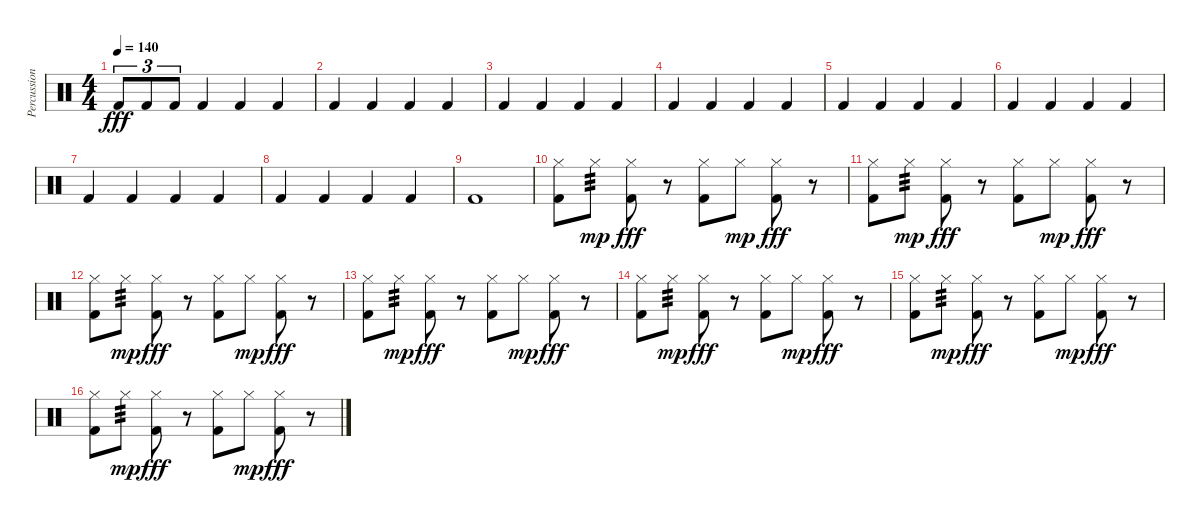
\track ("Percussion" "Percussion") {instrument percussion}
\staff {score}
\articulation defaults
\ts (4 4)
\tempo 140
\clef neutral
\ks c "Kick (hit) 2".8{tu (3 2) dy fff} "Kick (hit) 2".8{tu (3 2)} "Kick (hit) 2".8{tu (3 2)} "Kick (hit) 2".4 "Kick (hit) 2".4 "Kick (hit) 2".4
|
"Kick (hit) 2".4 "Kick (hit) 2".4 "Kick (hit) 2".4 "Kick (hit) 2".4 |
"Kick (hit) 2".4 "Kick (hit) 2".4 "Kick (hit) 2".4 "Kick (hit) 2".4 |
"Kick (hit) 2".4 "Kick (hit) 2".4 "Kick (hit) 2".4 "Kick (hit) 2".4 |
"Kick (hit) 2".4 "Kick (hit) 2".4 "Kick (hit) 2".4 "Kick (hit) 2".4 |
"Kick (hit) 2".4 "Kick (hit) 2".4 "Kick (hit) 2".4 "Kick (hit) 2".4 |
"Kick (hit) 2".4 "Kick (hit) 2".4 "Kick (hit) 2".4 "Kick (hit) 2".4 |
"Kick (hit) 2".4 "Kick (hit) 2".4 "Kick (hit) 2".4 "Kick (hit) 2".4 |
"Kick (hit) 2".1 |
("Hi-Hat (closed)" "Kick (hit) 2").8 "Hi-Hat (closed)".8{tp 3 dy mp} ("Hi-Hat (closed)" "Kick (hit) 2").8{dy fff} r.8 ("Hi-Hat (closed)" "Kick (hit) 2").8 "Hi-Hat (closed)".8{dy mp} ("Hi-Hat (closed)" "Kick (hit) 2").8{dy fff} r.8 |
("Hi-Hat (closed)" "Kick (hit) 2").8 "Hi-Hat (closed)".8{tp 3 dy mp} ("Hi-Hat (closed)" "Kick (hit) 2").8{dy fff} r.8 ("Hi-Hat (closed)" "Kick (hit) 2").8 "Hi-Hat (closed)".8{dy mp} ("Hi-Hat (closed)" "Kick (hit) 2").8{dy fff} r.8 |
("Hi-Hat (closed)" "Kick (hit) 2").8 "Hi-Hat (closed)".8{tp 3 dy mp} ("Hi-Hat (closed)" "Kick (hit) 2").8{dy fff} r.8 ("Hi-Hat (closed)" "Kick (hit) 2").8 "Hi-Hat (closed)".8{dy mp} ("Hi-Hat (closed)" "Kick (hit) 2").8{dy fff} r.8 |
("Hi-Hat (closed)" "Kick (hit) 2").8 "Hi-Hat (closed)".8{tp 3 dy mp} ("Hi-Hat (closed)" "Kick (hit) 2").8{dy fff} r.8 ("Hi-Hat (closed)" "Kick (hit) 2").8 "Hi-Hat (closed)".8{dy mp} ("Hi-Hat (closed)" "Kick (hit) 2").8{dy fff} r.8 |
("Hi-Hat (closed)" "Kick (hit) 2").8 "Hi-Hat (closed)".8{tp 3 dy mp} ("Hi-Hat (closed)" "Kick (hit) 2").8{dy fff} r.8 ("Hi-Hat (closed)" "Kick (hit) 2").8 "Hi-Hat (closed)".8{dy mp} ("Hi-Hat (closed)" "Kick (hit) 2").8{dy fff} r.8 |
("Hi-Hat (closed)" "Kick (hit) 2").8 "Hi-Hat (closed)".8{tp 3 dy mp} ("Hi-Hat (closed)" "Kick (hit) 2").8{dy fff} r.8 ("Hi-Hat (closed)" "Kick (hit) 2").8 "Hi-Hat (closed)".8{dy mp} ("Hi-Hat (closed)" "Kick (hit) 2").8{dy fff} r.8 |
("Hi-Hat (closed)" "Kick (hit) 2").8 "Hi-Hat (closed)".8{tp 3 dy mp} ("Hi-Hat (closed)" "Kick (hit) 2").8{dy fff} r.8 ("Hi-Hat (closed)" "Kick (hit) 2").8 "Hi-Hat (closed)".8{dy mp} ("Hi-Hat (closed)" "Kick (hit) 2").8{dy fff} r.8
